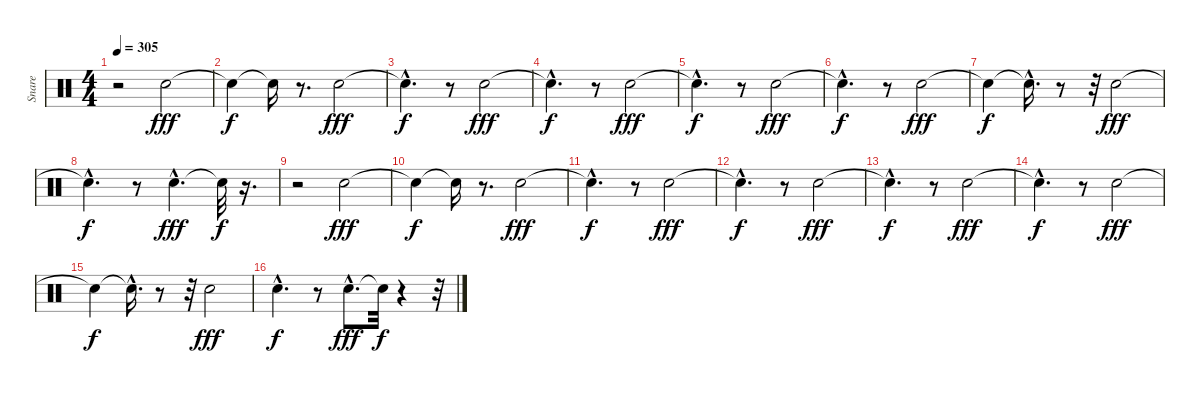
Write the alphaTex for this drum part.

\track ("Snare" "Snare") {instrument percussion}
\staff {score}
\articulation defaults
\ts (4 4)
\tempo 305
\clef neutral
\ks c
r.2{dy f} "Electric Snare (hit)".2{dy fff} |
"Snare (hit)"{t}.4{dy f} "Snare (hit)"{t}.16 r.8{d} "Electric Snare (hit)".2{dy fff} |
"Snare (hit)"{hac t}.4{d dy f} r.8 "Electric Snare (hit)".2{dy fff} |
"Snare (hit)"{hac t}.4{d dy f} r.8 "Electric Snare (hit)".2{dy fff} |
"Snare (hit)"{hac t}.4{d dy f} r.8 "Electric Snare (hit)".2{dy fff} |
"Snare (hit)"{hac t}.4{d dy f} r.8 "Electric Snare (hit)".2{dy fff} |
"Snare (hit)"{t}.4{dy f} "Snare (hit)"{hac t}.16{d} r.8 r.32 "Electric Snare (hit)".2{dy fff} |
"Snare (hit)"{hac t}.4{d dy f} r.8 "Electric Snare (hit)"{hac}.4{d dy fff} "Snare (hit)"{t}.32{dy f} r.16{d} |
r.2 "Electric Snare (hit)".2{dy fff} |
"Snare (hit)"{t}.4{dy f} "Snare (hit)"{t}.16 r.8{d} "Electric Snare (hit)".2{dy fff} |
"Snare (hit)"{hac t}.4{d dy f} r.8 "Electric Snare (hit)".2{dy fff} |
"Snare (hit)"{hac t}.4{d dy f} r.8 "Electric Snare (hit)".2{dy fff} |
"Snare (hit)"{hac t}.4{d dy f} r.8 "Electric Snare (hit)".2{dy fff} |
"Snare (hit)"{hac t}.4{d dy f} r.8 "Electric Snare (hit)".2{dy fff} |
"Snare (hit)"{t}.4{dy f} "Snare (hit)"{hac t}.16{d} r.8 r.32 "Electric Snare (hit)".2{dy fff} |
"Electric Snare (hit)"{hac}.4{d dy f} r.8 "Electric Snare (hit)"{hac}.8{d dy fff} "Snare (hit)"{t}.32{dy f} r.4 r.32
